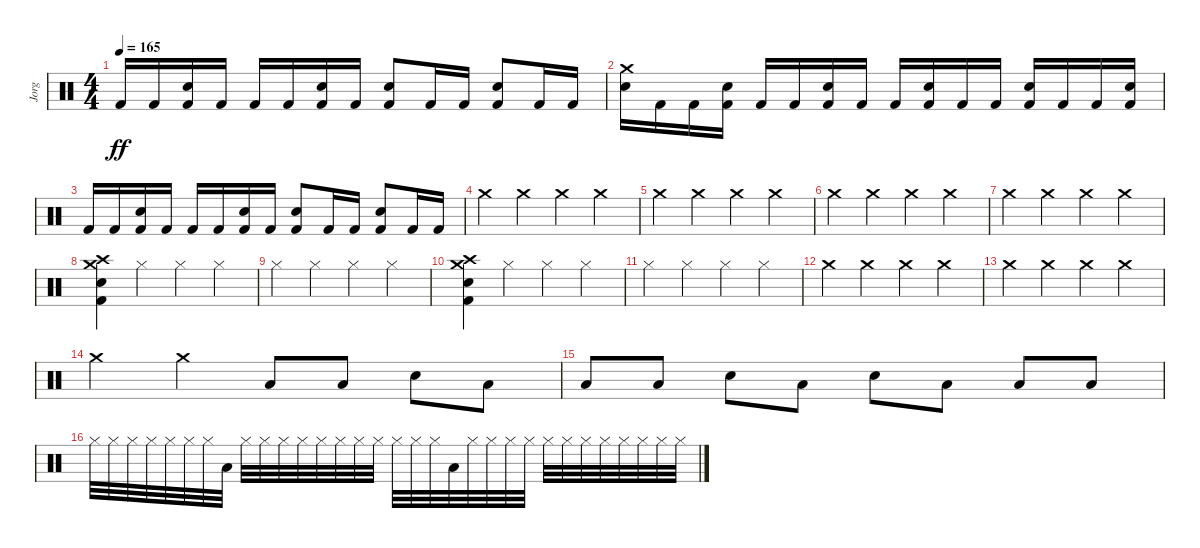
\track ("Jorg" "Jorg") {instrument percussion}
\staff {score}
\articulation defaults
\ts (4 4)
\tempo 165
\clef neutral
\ks c "Kick (hit) 2".16{dy ff} "Kick (hit) 2".16
("Electric Snare (hit)" "Kick (hit) 2").16 "Kick (hit) 2".16 "Kick (hit) 2".16 "Kick (hit) 2".16 ("Electric Snare (hit)" "Kick (hit) 2").16 "Kick (hit) 2".16 ("Electric Snare (hit)" "Kick (hit) 2").8 "Kick (hit) 2".16 "Kick (hit) 2".16 ("Electric Snare (hit)" "Kick (hit) 2").8 "Kick (hit) 2".16 "Kick (hit) 2".16 |
("Crash medium (hit)" "Electric Snare (hit)").16 "Kick (hit) 2".16 "Kick (hit) 2".16 ("Electric Snare (hit)" "Kick (hit) 2").16 "Kick (hit) 2".16 "Kick (hit) 2".16 ("Electric Snare (hit)" "Kick (hit) 2").16 "Kick (hit) 2".16 "Kick (hit) 2".16 ("Electric Snare (hit)" "Kick (hit) 2").16 "Kick (hit) 2".16 "Kick (hit) 2".16 ("Electric Snare (hit)" "Kick (hit) 2").16 "Kick (hit) 2".16 "Kick (hit) 2".16 ("Electric Snare (hit)" "Kick (hit) 2").16 |
"Kick (hit) 2".16 "Kick (hit) 2".16 ("Electric Snare (hit)" "Kick (hit) 2").16 "Kick (hit) 2".16 "Kick (hit) 2".16 "Kick (hit) 2".16 ("Electric Snare (hit)" "Kick (hit) 2").16 "Kick (hit) 2".16 ("Electric Snare (hit)" "Kick (hit) 2").8 "Kick (hit) 2".16 "Kick (hit) 2".16 ("Electric Snare (hit)" "Kick (hit) 2").8 "Kick (hit) 2".16 "Kick (hit) 2".16 |
"Crash medium (hit)".4 "Crash medium (hit)".4 "Crash medium (hit)".4 "Crash medium (hit)".4 |
"Crash medium (hit)".4 "Crash medium (hit)".4 "Crash medium (hit)".4 "Crash medium (hit)".4 |
"Crash medium (hit)".4 "Crash medium (hit)".4 "Crash medium (hit)".4 "Crash medium (hit)".4 |
"Crash medium (hit)".4 "Crash medium (hit)".4 "Crash medium (hit)".4 "Crash medium (hit)".4 |
("Electric Snare (hit)" "Kick (hit) 2" "Crash high (hit)" "Crash medium (hit)").4 "Hi-Hat (closed)".4 "Hi-Hat (closed)".4 "Hi-Hat (closed)".4 |
"Hi-Hat (closed)".4 "Hi-Hat (closed)".4 "Hi-Hat (closed)".4 "Hi-Hat (closed)".4 |
("Electric Snare (hit)" "Kick (hit) 2" "Crash high (hit)" "Crash medium (hit)").4 "Hi-Hat (closed)".4 "Hi-Hat (closed)".4 "Hi-Hat (closed)".4 |
"Hi-Hat (closed)".4 "Hi-Hat (closed)".4 "Hi-Hat (closed)".4 "Hi-Hat (closed)".4 |
"Crash medium (hit)".4 "Crash medium (hit)".4 "Crash medium (hit)".4 "Crash medium (hit)".4 |
"Crash medium (hit)".4 "Crash medium (hit)".4 "Crash medium (hit)".4 "Crash medium (hit)".4 |
"Crash medium (hit)".4 "Crash medium (hit)".4 "Low Tom (hit)".8 "Low Tom (hit)".8 "Electric Snare (hit)".8 "Low Tom (hit)".8 |
"Low Tom (hit)".8 "Low Tom (hit)".8 "Electric Snare (hit)".8 "Low Tom (hit)".8 "Electric Snare (hit)".8 "Low Tom (hit)".8 "Low Tom (hit)".8 "Low Tom (hit)".8 |
"Hi-Hat (closed)".32 "Hi-Hat (closed)".32 "Hi-Hat (closed)".32 "Hi-Hat (closed)".32 "Hi-Hat (closed)".32 "Hi-Hat (closed)".32 "Hi-Hat (closed)".32 "Low Floor Tom (hit)".32 "Hi-Hat (closed)".32 "Hi-Hat (closed)".32 "Hi-Hat (closed)".32 "Hi-Hat (closed)".32 "Hi-Hat (closed)".32 "Hi-Hat (closed)".32 "Hi-Hat (closed)".32 "Hi-Hat (closed)".32 "Hi-Hat (closed)".32 "Hi-Hat (closed)".32 "Hi-Hat (closed)".32 "Low Floor Tom (hit)".32 "Hi-Hat (closed)".32 "Hi-Hat (closed)".32 "Hi-Hat (closed)".32 "Hi-Hat (closed)".32 "Hi-Hat (closed)".32 "Hi-Hat (closed)".32 "Hi-Hat (closed)".32 "Hi-Hat (closed)".32 "Hi-Hat (closed)".32 "Hi-Hat (closed)".32 "Hi-Hat (closed)".32 "Hi-Hat (closed)".32
